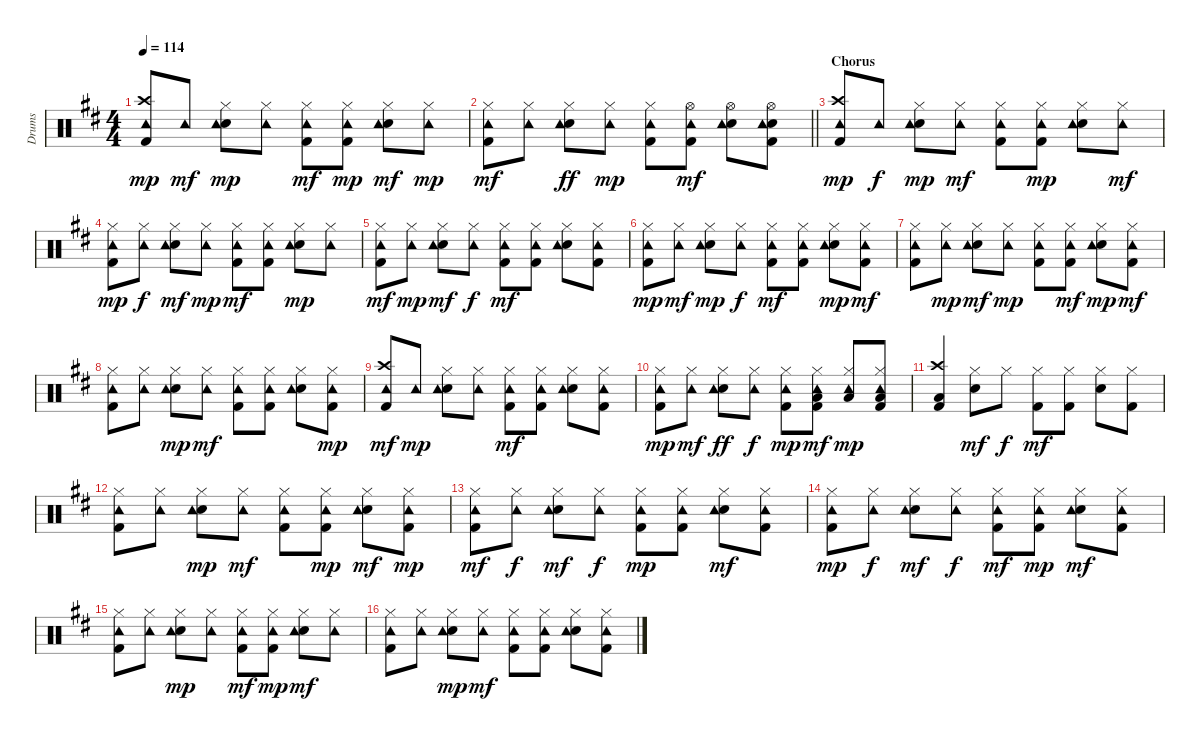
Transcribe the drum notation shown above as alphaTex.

\track ("Drums" "Drums") {instrument percussion}
\staff {score}
\articulation defaults
\ts (4 4)
\tempo 114
\clef neutral
\ks d
("Kick (hit) 2" "Crash high (hit)" "Tambourine (hit)").8{dy mp} "Tambourine (hit)".8{dy mf} ("Snare (hit) 2" "Hi-Hat (closed)" "Tambourine (hit)").8{dy mp} ("Hi-Hat (closed)" "Tambourine (hit)").8 ("Kick (hit) 2" "Hi-Hat (closed)" "Tambourine (hit)").8{dy mf} ("Kick (hit) 2" "Hi-Hat (closed)" "Tambourine (hit)").8{dy mp} ("Snare (hit) 2" "Hi-Hat (closed)" "Tambourine (hit)").8{dy mf} ("Hi-Hat (closed)" "Tambourine (hit)").8{dy mp} |
\barLineRight lightlight
("Kick (hit) 2" "Hi-Hat (closed)" "Tambourine (hit)").8{dy mf} ("Hi-Hat (closed)" "Tambourine (hit)").8 ("Snare (hit) 2" "Hi-Hat (closed)" "Tambourine (hit)").8{dy ff} ("Hi-Hat (closed)" "Tambourine (hit)").8{dy mp} ("Kick (hit) 2" "Hi-Hat (closed)" "Tambourine (hit)").8 ("Kick (hit) 2" "Hi-Hat (open)" "Tambourine (hit)").8{dy mf} ("Snare (hit) 2" "Hi-Hat (open)" "Tambourine (hit)").8 ("Kick (hit) 2" "Snare (hit) 2" "Hi-Hat (open)" "Tambourine (hit)").8 |
\section ("" "Chorus")
("Kick (hit) 2" "Crash high (hit)" "Tambourine (hit)").8{dy mp} "Tambourine (hit)".8{dy f} ("Snare (hit) 2" "Hi-Hat (closed)" "Tambourine (hit)").8{dy mp} ("Hi-Hat (closed)" "Tambourine (hit)").8{dy mf} ("Kick (hit) 2" "Hi-Hat (closed)" "Tambourine (hit)").8 ("Kick (hit) 2" "Hi-Hat (closed)" "Tambourine (hit)").8{dy mp} ("Snare (hit) 2" "Hi-Hat (closed)" "Tambourine (hit)").8 ("Hi-Hat (closed)" "Tambourine (hit)").8{dy mf} |
("Kick (hit) 2" "Hi-Hat (closed)" "Tambourine (hit)").8{dy mp} ("Hi-Hat (closed)" "Tambourine (hit)").8{dy f} ("Snare (hit) 2" "Hi-Hat (closed)" "Tambourine (hit)").8{dy mf} ("Hi-Hat (closed)" "Tambourine (hit)").8{dy mp} ("Kick (hit) 2" "Hi-Hat (closed)" "Tambourine (hit)").8{dy mf} ("Kick (hit) 2" "Hi-Hat (closed)" "Tambourine (hit)").8 ("Snare (hit) 2" "Hi-Hat (closed)" "Tambourine (hit)").8{dy mp} ("Hi-Hat (closed)" "Tambourine (hit)").8 |
("Kick (hit) 2" "Hi-Hat (closed)" "Tambourine (hit)").8{dy mf} ("Hi-Hat (closed)" "Tambourine (hit)").8{dy mp} ("Snare (hit) 2" "Hi-Hat (closed)" "Tambourine (hit)").8{dy mf} ("Hi-Hat (closed)" "Tambourine (hit)").8{dy f} ("Kick (hit) 2" "Hi-Hat (closed)" "Tambourine (hit)").8{dy mf} ("Kick (hit) 2" "Hi-Hat (closed)" "Tambourine (hit)").8 ("Snare (hit) 2" "Hi-Hat (closed)" "Tambourine (hit)").8 ("Kick (hit) 2" "Hi-Hat (closed)" "Tambourine (hit)").8 |
("Kick (hit) 2" "Hi-Hat (closed)" "Tambourine (hit)").8{dy mp} ("Hi-Hat (closed)" "Tambourine (hit)").8{dy mf} ("Snare (hit) 2" "Hi-Hat (closed)" "Tambourine (hit)").8{dy mp} ("Hi-Hat (closed)" "Tambourine (hit)").8{dy f} ("Kick (hit) 2" "Hi-Hat (closed)" "Tambourine (hit)").8{dy mf} ("Kick (hit) 2" "Hi-Hat (closed)" "Tambourine (hit)").8 ("Snare (hit) 2" "Hi-Hat (closed)" "Tambourine (hit)").8{dy mp} ("Kick (hit) 2" "Hi-Hat (closed)" "Tambourine (hit)").8{dy mf} |
("Kick (hit) 2" "Hi-Hat (closed)" "Tambourine (hit)").8 ("Hi-Hat (closed)" "Tambourine (hit)").8{dy mp} ("Snare (hit) 2" "Hi-Hat (closed)" "Tambourine (hit)").8{dy mf} ("Hi-Hat (closed)" "Tambourine (hit)").8{dy mp} ("Kick (hit) 2" "Hi-Hat (closed)" "Tambourine (hit)").8 ("Kick (hit) 2" "Hi-Hat (closed)" "Tambourine (hit)").8{dy mf} ("Snare (hit) 2" "Hi-Hat (closed)" "Tambourine (hit)").8{dy mp} ("Kick (hit) 2" "Hi-Hat (closed)" "Tambourine (hit)").8{dy mf} |
("Kick (hit) 2" "Hi-Hat (closed)" "Tambourine (hit)").8 ("Hi-Hat (closed)" "Tambourine (hit)").8 ("Snare (hit) 2" "Hi-Hat (closed)" "Tambourine (hit)").8{dy mp} ("Hi-Hat (closed)" "Tambourine (hit)").8{dy mf} ("Kick (hit) 2" "Hi-Hat (closed)" "Tambourine (hit)").8 ("Kick (hit) 2" "Hi-Hat (closed)" "Tambourine (hit)").8 ("Snare (hit) 2" "Hi-Hat (closed)" "Tambourine (hit)").8 ("Kick (hit) 2" "Hi-Hat (closed)" "Tambourine (hit)").8{dy mp} |
("Kick (hit) 2" "Crash high (hit)" "Tambourine (hit)").8{dy mf} "Tambourine (hit)".8{dy mp} ("Snare (hit) 2" "Hi-Hat (closed)" "Tambourine (hit)").8 ("Hi-Hat (closed)" "Tambourine (hit)").8 ("Kick (hit) 2" "Hi-Hat (closed)" "Tambourine (hit)").8{dy mf} ("Kick (hit) 2" "Hi-Hat (closed)" "Tambourine (hit)").8 ("Snare (hit) 2" "Hi-Hat (closed)" "Tambourine (hit)").8 ("Kick (hit) 2" "Hi-Hat (closed)" "Tambourine (hit)").8 |
("Kick (hit) 2" "Hi-Hat (closed)" "Tambourine (hit)").8{dy mp} ("Hi-Hat (closed)" "Tambourine (hit)").8{dy mf} ("Snare (hit) 2" "Hi-Hat (closed)" "Tambourine (hit)").8{dy ff} ("Hi-Hat (closed)" "Tambourine (hit)").8{dy f} ("Kick (hit) 2" "Hi-Hat (closed)" "Tambourine (hit)").8{dy mp} ("Kick (hit) 2" "Low Floor Tom (hit)" "Hi-Hat (closed)" "Tambourine (hit)").8{dy mf} ("Low Floor Tom (hit)" "Hi-Hat (closed)" "Tambourine (hit)").8{dy mp} ("Kick (hit) 2" "Low Floor Tom (hit)" "Hi-Hat (closed)" "Tambourine (hit)").8 |
("Kick (hit) 2" "Low Floor Tom (hit)" "Crash high (hit)").4 ("Snare (hit) 2" "Hi-Hat (closed)").8{dy mf} "Hi-Hat (closed)".8{dy f} ("Kick (hit) 2" "Hi-Hat (closed)").8{dy mf} ("Kick (hit) 2" "Hi-Hat (closed)").8 ("Snare (hit) 2" "Hi-Hat (closed)").8 ("Kick (hit) 2" "Hi-Hat (closed)").8 |
("Kick (hit) 2" "Hi-Hat (closed)" "Tambourine (hit)").8 ("Hi-Hat (closed)" "Tambourine (hit)").8 ("Snare (hit) 2" "Hi-Hat (closed)" "Tambourine (hit)").8{dy mp} ("Hi-Hat (closed)" "Tambourine (hit)").8{dy mf} ("Kick (hit) 2" "Hi-Hat (closed)" "Tambourine (hit)").8 ("Kick (hit) 2" "Hi-Hat (closed)" "Tambourine (hit)").8{dy mp} ("Snare (hit) 2" "Hi-Hat (closed)" "Tambourine (hit)").8{dy mf} ("Kick (hit) 2" "Hi-Hat (closed)" "Tambourine (hit)").8{dy mp} |
("Kick (hit) 2" "Hi-Hat (closed)" "Tambourine (hit)").8{dy mf} ("Hi-Hat (closed)" "Tambourine (hit)").8{dy f} ("Snare (hit) 2" "Hi-Hat (closed)" "Tambourine (hit)").8{dy mf} ("Hi-Hat (closed)" "Tambourine (hit)").8{dy f} ("Kick (hit) 2" "Hi-Hat (closed)" "Tambourine (hit)").8{dy mp} ("Kick (hit) 2" "Hi-Hat (closed)" "Tambourine (hit)").8 ("Snare (hit) 2" "Hi-Hat (closed)" "Tambourine (hit)").8{dy mf} ("Kick (hit) 2" "Hi-Hat (closed)" "Tambourine (hit)").8 |
("Kick (hit) 2" "Hi-Hat (closed)" "Tambourine (hit)").8{dy mp} ("Hi-Hat (closed)" "Tambourine (hit)").8{dy f} ("Snare (hit) 2" "Hi-Hat (closed)" "Tambourine (hit)").8{dy mf} ("Hi-Hat (closed)" "Tambourine (hit)").8{dy f} ("Kick (hit) 2" "Hi-Hat (closed)" "Tambourine (hit)").8{dy mf} ("Kick (hit) 2" "Hi-Hat (closed)" "Tambourine (hit)").8{dy mp} ("Snare (hit) 2" "Hi-Hat (closed)" "Tambourine (hit)").8{dy mf} ("Kick (hit) 2" "Hi-Hat (closed)" "Tambourine (hit)").8 |
("Kick (hit) 2" "Hi-Hat (closed)" "Tambourine (hit)").8 ("Hi-Hat (closed)" "Tambourine (hit)").8 ("Snare (hit) 2" "Hi-Hat (closed)" "Tambourine (hit)").8{dy mp} ("Hi-Hat (closed)" "Tambourine (hit)").8 ("Kick (hit) 2" "Hi-Hat (closed)" "Tambourine (hit)").8{dy mf} ("Kick (hit) 2" "Hi-Hat (closed)" "Tambourine (hit)").8{dy mp} ("Snare (hit) 2" "Hi-Hat (closed)" "Tambourine (hit)").8{dy mf} ("Hi-Hat (closed)" "Tambourine (hit)").8 |
("Kick (hit) 2" "Hi-Hat (closed)" "Tambourine (hit)").8 ("Hi-Hat (closed)" "Tambourine (hit)").8 ("Snare (hit) 2" "Hi-Hat (closed)" "Tambourine (hit)").8{dy mp} ("Hi-Hat (closed)" "Tambourine (hit)").8{dy mf} ("Kick (hit) 2" "Hi-Hat (closed)" "Tambourine (hit)").8 ("Kick (hit) 2" "Hi-Hat (closed)" "Tambourine (hit)").8 ("Snare (hit) 2" "Hi-Hat (closed)" "Tambourine (hit)").8 ("Kick (hit) 2" "Hi-Hat (closed)" "Tambourine (hit)").8
